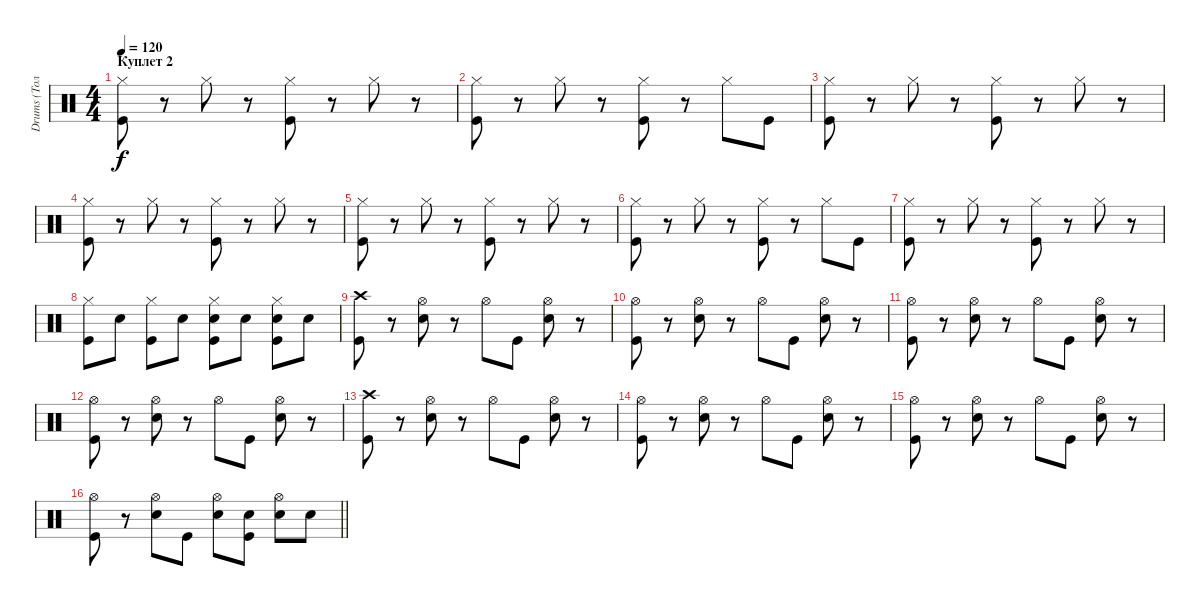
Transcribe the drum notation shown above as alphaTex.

\track ("Drums (Толян)" "Drums (Тол") {instrument percussion}
\staff {score}
\articulation defaults
\ts (4 4)
\section ("" "Куплет 2")
\tempo 120
\clef neutral
\ks c
("Hi-Hat (closed)" "Kick (hit)").8{dy f} r.8 "Hi-Hat (closed)".8 r.8 ("Hi-Hat (closed)" "Kick (hit)").8 r.8 "Hi-Hat (closed)".8 r.8 |
("Hi-Hat (closed)" "Kick (hit)").8 r.8 "Hi-Hat (closed)".8 r.8 ("Hi-Hat (closed)" "Kick (hit)").8 r.8 "Hi-Hat (closed)".8 "Kick (hit)".8 |
("Hi-Hat (closed)" "Kick (hit)").8 r.8 "Hi-Hat (closed)".8 r.8 ("Hi-Hat (closed)" "Kick (hit)").8 r.8 "Hi-Hat (closed)".8 r.8 |
("Hi-Hat (closed)" "Kick (hit)").8 r.8 "Hi-Hat (closed)".8 r.8 ("Hi-Hat (closed)" "Kick (hit)").8 r.8 "Hi-Hat (closed)".8 r.8 |
("Hi-Hat (closed)" "Kick (hit)").8 r.8 "Hi-Hat (closed)".8 r.8 ("Hi-Hat (closed)" "Kick (hit)").8 r.8 "Hi-Hat (closed)".8 r.8 |
("Hi-Hat (closed)" "Kick (hit)").8 r.8 "Hi-Hat (closed)".8 r.8 ("Hi-Hat (closed)" "Kick (hit)").8 r.8 "Hi-Hat (closed)".8 "Kick (hit)".8 |
("Hi-Hat (closed)" "Kick (hit)").8 r.8 "Hi-Hat (closed)".8 r.8 ("Hi-Hat (closed)" "Kick (hit)").8 r.8 "Hi-Hat (closed)".8 r.8 |
("Hi-Hat (closed)" "Kick (hit)").8 "Electric Snare (hit)".8 ("Hi-Hat (closed)" "Kick (hit)").8 "Electric Snare (hit)".8 ("Hi-Hat (closed)" "Electric Snare (hit)" "Kick (hit)").8 "Electric Snare (hit)".8 ("Hi-Hat (closed)" "Electric Snare (hit)" "Kick (hit)").8 "Electric Snare (hit)".8 |
("Crash high (hit)" "Kick (hit)").8 r.8 ("Hi-Hat (open)" "Electric Snare (hit)").8 r.8 "Hi-Hat (open)".8 "Kick (hit)".8 ("Hi-Hat (open)" "Electric Snare (hit)").8 r.8 |
("Hi-Hat (open)" "Kick (hit)").8 r.8 ("Hi-Hat (open)" "Electric Snare (hit)").8 r.8 "Hi-Hat (open)".8 "Kick (hit)".8 ("Hi-Hat (open)" "Electric Snare (hit)").8 r.8 |
("Hi-Hat (open)" "Kick (hit)").8 r.8 ("Hi-Hat (open)" "Electric Snare (hit)").8 r.8 "Hi-Hat (open)".8 "Kick (hit)".8 ("Hi-Hat (open)" "Electric Snare (hit)").8 r.8 |
("Hi-Hat (open)" "Kick (hit)").8 r.8 ("Hi-Hat (open)" "Electric Snare (hit)").8 r.8 "Hi-Hat (open)".8 "Kick (hit)".8 ("Hi-Hat (open)" "Electric Snare (hit)").8 r.8 |
("Crash high (hit)" "Kick (hit)").8 r.8 ("Hi-Hat (open)" "Electric Snare (hit)").8 r.8 "Hi-Hat (open)".8 "Kick (hit)".8 ("Hi-Hat (open)" "Electric Snare (hit)").8 r.8 |
("Hi-Hat (open)" "Kick (hit)").8 r.8 ("Hi-Hat (open)" "Electric Snare (hit)").8 r.8 "Hi-Hat (open)".8 "Kick (hit)".8 ("Hi-Hat (open)" "Electric Snare (hit)").8 r.8 |
("Hi-Hat (open)" "Kick (hit)").8 r.8 ("Hi-Hat (open)" "Electric Snare (hit)").8 r.8 "Hi-Hat (open)".8 "Kick (hit)".8 ("Hi-Hat (open)" "Electric Snare (hit)").8 r.8 |
\barLineRight lightlight
("Hi-Hat (open)" "Kick (hit)").8 r.8 ("Hi-Hat (open)" "Electric Snare (hit)").8 "Kick (hit)".8 ("Hi-Hat (open)" "Electric Snare (hit)").8 ("Electric Snare (hit)" "Kick (hit)").8 ("Hi-Hat (open)" "Electric Snare (hit)").8 "Electric Snare (hit)".8
